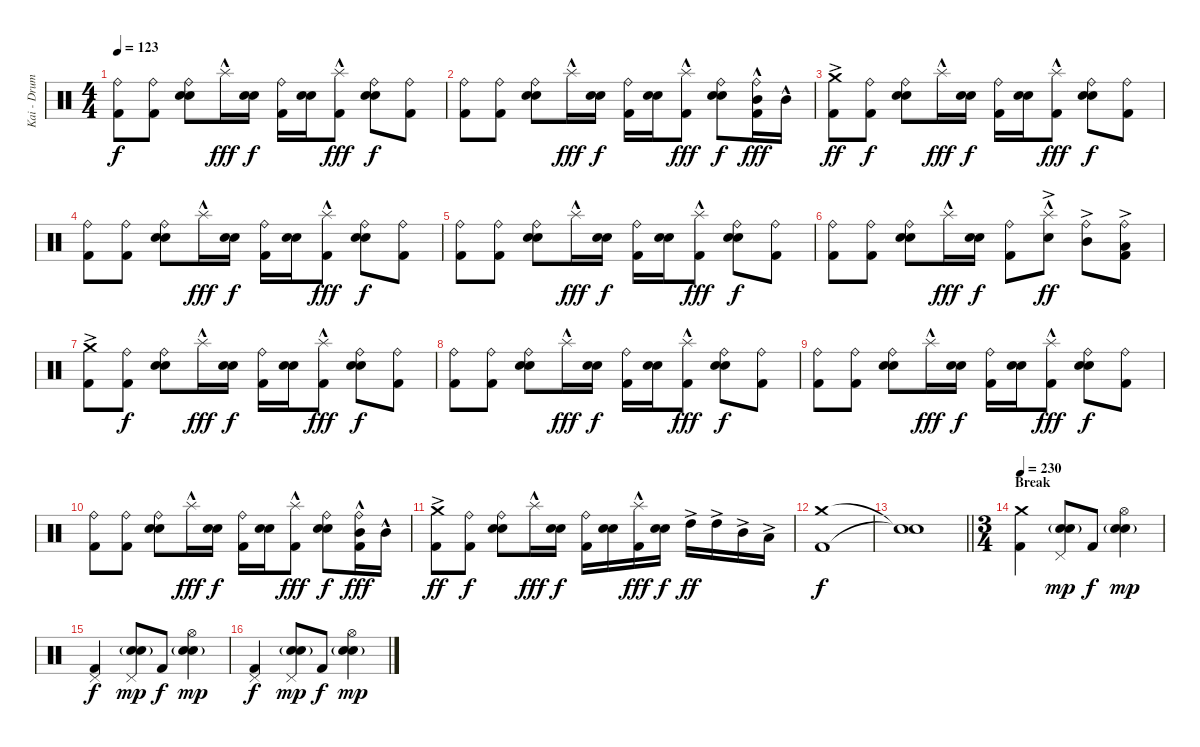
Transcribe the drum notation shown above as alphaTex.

\track ("Kai - Drums" "Kai - Drum") {instrument percussion}
\staff {score}
\articulation defaults
\ts (4 4)
\tempo 123
\clef neutral
\ks c
("Ride (bell)" "Kick (hit) 2").8{dy f} ("Ride (bell)" "Kick (hit) 2").8 ("Ride (bell)" "Electric Snare (hit)" "Snare (hit) 2").8 "Splash (hit)"{hac}.16{dy fff} ("Electric Snare (hit)" "Snare (hit) 2").16{dy f} ("Ride (bell)" "Kick (hit) 2").16 ("Electric Snare (hit)" "Snare (hit) 2").16 ("Splash (hit)"{hac} "Kick (hit) 2").8{dy fff} ("Ride (bell)" "Electric Snare (hit)" "Snare (hit) 2").8{dy f} ("Ride (bell)" "Kick (hit) 2").8 |
("Ride (bell)" "Kick (hit) 2").8 ("Ride (bell)" "Kick (hit) 2").8 ("Ride (bell)" "Electric Snare (hit)" "Snare (hit) 2").8 "Splash (hit)"{hac}.16{dy fff} ("Electric Snare (hit)" "Snare (hit) 2").16{dy f} ("Ride (bell)" "Kick (hit) 2").16 ("Electric Snare (hit)" "Snare (hit) 2").16 ("Splash (hit)"{hac} "Kick (hit) 2").8{dy fff} ("Ride (bell)" "Electric Snare (hit)" "Snare (hit) 2").8{dy f} ("Ride (bell)" "Mid Tom (hit)"{hac} "Kick (hit) 2").16{dy fff} "Mid Tom (hit)"{hac}.16 |
("Crash medium (hit)"{ac} "Kick (hit) 2").8{dy ff} ("Ride (bell)" "Kick (hit) 2").8{dy f} ("Ride (bell)" "Electric Snare (hit)" "Snare (hit) 2").8 "Splash (hit)"{hac}.16{dy fff} ("Electric Snare (hit)" "Snare (hit) 2").16{dy f} ("Ride (bell)" "Kick (hit) 2").16 ("Electric Snare (hit)" "Snare (hit) 2").16 ("Splash (hit)"{hac} "Kick (hit) 2").8{dy fff} ("Ride (bell)" "Electric Snare (hit)" "Snare (hit) 2").8{dy f} ("Ride (bell)" "Kick (hit) 2").8 |
("Ride (bell)" "Kick (hit) 2").8 ("Ride (bell)" "Kick (hit) 2").8 ("Ride (bell)" "Electric Snare (hit)" "Snare (hit) 2").8 "Splash (hit)"{hac}.16{dy fff} ("Electric Snare (hit)" "Snare (hit) 2").16{dy f} ("Ride (bell)" "Kick (hit) 2").16 ("Electric Snare (hit)" "Snare (hit) 2").16 ("Splash (hit)"{hac} "Kick (hit) 2").8{dy fff} ("Ride (bell)" "Electric Snare (hit)" "Snare (hit) 2").8{dy f} ("Ride (bell)" "Kick (hit) 2").8 |
("Ride (bell)" "Kick (hit) 2").8 ("Ride (bell)" "Kick (hit) 2").8 ("Ride (bell)" "Electric Snare (hit)" "Snare (hit) 2").8 "Splash (hit)"{hac}.16{dy fff} ("Electric Snare (hit)" "Snare (hit) 2").16{dy f} ("Ride (bell)" "Kick (hit) 2").16 ("Electric Snare (hit)" "Snare (hit) 2").16 ("Splash (hit)"{hac} "Kick (hit) 2").8{dy fff} ("Ride (bell)" "Electric Snare (hit)" "Snare (hit) 2").8{dy f} ("Ride (bell)" "Kick (hit) 2").8 |
("Ride (bell)" "Kick (hit) 2").8 ("Ride (bell)" "Kick (hit) 2").8 ("Ride (bell)" "Electric Snare (hit)" "Snare (hit) 2").8 "Splash (hit)"{hac}.16{dy fff} ("Electric Snare (hit)" "Snare (hit) 2").16{dy f} ("Ride (bell)" "Kick (hit) 2").8 ("Splash (hit)"{hac} "Electric Snare (hit)"{ac}).8{dy ff} ("Ride (bell)" "Mid Tom (hit)"{ac}).8 ("Ride (bell)" "Low Tom (hit)"{ac} "Kick (hit) 2").8 |
("Crash medium (hit)"{ac} "Kick (hit) 2").8 ("Ride (bell)" "Kick (hit) 2").8{dy f} ("Ride (bell)" "Electric Snare (hit)" "Snare (hit) 2").8 "Splash (hit)"{hac}.16{dy fff} ("Electric Snare (hit)" "Snare (hit) 2").16{dy f} ("Ride (bell)" "Kick (hit) 2").16 ("Electric Snare (hit)" "Snare (hit) 2").16 ("Splash (hit)"{hac} "Kick (hit) 2").8{dy fff} ("Ride (bell)" "Electric Snare (hit)" "Snare (hit) 2").8{dy f} ("Ride (bell)" "Kick (hit) 2").8 |
("Ride (bell)" "Kick (hit) 2").8 ("Ride (bell)" "Kick (hit) 2").8 ("Ride (bell)" "Electric Snare (hit)" "Snare (hit) 2").8 "Splash (hit)"{hac}.16{dy fff} ("Electric Snare (hit)" "Snare (hit) 2").16{dy f} ("Ride (bell)" "Kick (hit) 2").16 ("Electric Snare (hit)" "Snare (hit) 2").16 ("Splash (hit)"{hac} "Kick (hit) 2").8{dy fff} ("Ride (bell)" "Electric Snare (hit)" "Snare (hit) 2").8{dy f} ("Ride (bell)" "Kick (hit) 2").8 |
("Ride (bell)" "Kick (hit) 2").8 ("Ride (bell)" "Kick (hit) 2").8 ("Ride (bell)" "Electric Snare (hit)" "Snare (hit) 2").8 "Splash (hit)"{hac}.16{dy fff} ("Electric Snare (hit)" "Snare (hit) 2").16{dy f} ("Ride (bell)" "Kick (hit) 2").16 ("Electric Snare (hit)" "Snare (hit) 2").16 ("Splash (hit)"{hac} "Kick (hit) 2").8{dy fff} ("Ride (bell)" "Electric Snare (hit)" "Snare (hit) 2").8{dy f} ("Ride (bell)" "Kick (hit) 2").8 |
("Ride (bell)" "Kick (hit) 2").8 ("Ride (bell)" "Kick (hit) 2").8 ("Ride (bell)" "Electric Snare (hit)" "Snare (hit) 2").8 "Splash (hit)"{hac}.16{dy fff} ("Electric Snare (hit)" "Snare (hit) 2").16{dy f} ("Ride (bell)" "Kick (hit) 2").16 ("Electric Snare (hit)" "Snare (hit) 2").16 ("Splash (hit)"{hac} "Kick (hit) 2").8{dy fff} ("Ride (bell)" "Electric Snare (hit)" "Snare (hit) 2").8{dy f} ("Ride (bell)" "Mid Tom (hit)"{hac} "Kick (hit) 2").16{dy fff} "Mid Tom (hit)"{hac}.16 |
("Crash medium (hit)"{ac} "Kick (hit) 2").8{dy ff} ("Ride (bell)" "Kick (hit) 2").8{dy f} ("Ride (bell)" "Electric Snare (hit)" "Snare (hit) 2").8 "Splash (hit)"{hac}.16{dy fff} ("Electric Snare (hit)" "Snare (hit) 2").16{dy f} ("Ride (bell)" "Kick (hit) 2").16 ("Electric Snare (hit)" "Snare (hit) 2").16 ("Splash (hit)"{hac} "Kick (hit) 2").16{dy fff} ("Electric Snare (hit)" "Snare (hit) 2").16{dy f} "High Tom (hit)"{ac}.16{dy ff} "High Tom (hit)"{ac}.16 "Mid Tom (hit)"{ac}.16 "Low Tom (hit)"{ac}.16 |
("Crash medium (hit)" "Kick (hit) 2").1{dy f} |
\barLineRight lightlight
("Snare (hit)"{t} "Snare (hit)"{t}).1 |
\ts (3 4)
\section ("" "Break")
\tempo 230
("Crash medium (hit)" "Kick (hit) 2").4 ("Pedal Hi-Hat (hit)" "Electric Snare (hit)" "Snare (hit) 2"{g}).8{dy mp} "Kick (hit) 2".8{dy f} ("Hi-Hat (open)" "Electric Snare (hit)" "Snare (hit) 2"{g}).4{dy mp} |
("Pedal Hi-Hat (hit)" "Kick (hit) 2").4{dy f} ("Pedal Hi-Hat (hit)" "Electric Snare (hit)" "Snare (hit) 2"{g}).8{dy mp} "Kick (hit) 2".8{dy f} ("Hi-Hat (open)" "Electric Snare (hit)" "Snare (hit) 2"{g}).4{dy mp} |
("Pedal Hi-Hat (hit)" "Kick (hit) 2").4{dy f} ("Pedal Hi-Hat (hit)" "Electric Snare (hit)" "Snare (hit) 2"{g}).8{dy mp} "Kick (hit) 2".8{dy f} ("Hi-Hat (open)" "Electric Snare (hit)" "Snare (hit) 2"{g}).4{dy mp}
